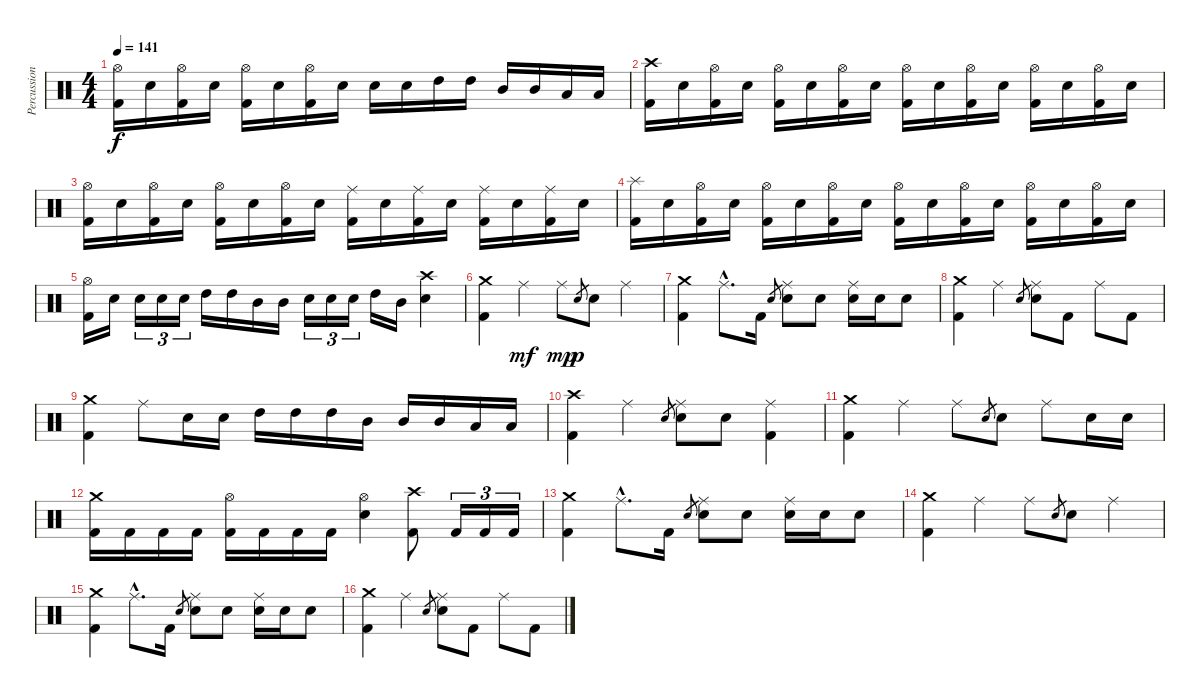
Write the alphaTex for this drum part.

\track ("Percussion" "Percussion") {instrument percussion}
\staff {score}
\articulation defaults
\ts (4 4)
\tempo 141
\clef neutral
\ks c
("Kick (hit) 2" "Hi-Hat (open)").16{dy f} "Electric Snare (hit)".16 ("Kick (hit) 2" "Hi-Hat (open)").16 "Electric Snare (hit)".16 ("Kick (hit) 2" "Hi-Hat (open)").16 "Electric Snare (hit)".16 ("Kick (hit) 2" "Hi-Hat (open)").16 "Electric Snare (hit)".16 "Electric Snare (hit)".16 "Electric Snare (hit)".16 "High Tom (hit)".16 "High Tom (hit)".16 "Mid Tom (hit)".16 "Mid Tom (hit)".16 "Low Tom (hit)".16 "Low Tom (hit)".16 |
("Kick (hit) 2" "Crash high (hit)").16 "Electric Snare (hit)".16 ("Kick (hit) 2" "Hi-Hat (open)").16 "Electric Snare (hit)".16 ("Kick (hit) 2" "Hi-Hat (open)").16 "Electric Snare (hit)".16 ("Kick (hit) 2" "Hi-Hat (open)").16 "Electric Snare (hit)".16 ("Kick (hit) 2" "Hi-Hat (open)").16 "Electric Snare (hit)".16 ("Kick (hit) 2" "Hi-Hat (open)").16 "Electric Snare (hit)".16 ("Kick (hit) 2" "Hi-Hat (open)").16 "Electric Snare (hit)".16 ("Kick (hit) 2" "Hi-Hat (open)").16 "Electric Snare (hit)".16 |
("Kick (hit) 2" "Hi-Hat (open)").16 "Electric Snare (hit)".16 ("Kick (hit) 2" "Hi-Hat (open)").16 "Electric Snare (hit)".16 ("Kick (hit) 2" "Hi-Hat (open)").16 "Electric Snare (hit)".16 ("Kick (hit) 2" "Hi-Hat (open)").16 "Electric Snare (hit)".16 ("Kick (hit) 2" "Ride (middle)").16 "Electric Snare (hit)".16 ("Kick (hit) 2" "Ride (middle)").16 "Electric Snare (hit)".16 ("Kick (hit) 2" "Ride (middle)").16 "Electric Snare (hit)".16 ("Kick (hit) 2" "Ride (middle)").16 "Electric Snare (hit)".16 |
("Kick (hit) 2" "Splash (hit)").16 "Electric Snare (hit)".16 ("Kick (hit) 2" "Hi-Hat (open)").16 "Electric Snare (hit)".16 ("Kick (hit) 2" "Hi-Hat (open)").16 "Electric Snare (hit)".16 ("Kick (hit) 2" "Hi-Hat (open)").16 "Electric Snare (hit)".16 ("Kick (hit) 2" "Hi-Hat (open)").16 "Electric Snare (hit)".16 ("Kick (hit) 2" "Hi-Hat (open)").16 "Electric Snare (hit)".16 ("Kick (hit) 2" "Hi-Hat (open)").16 "Electric Snare (hit)".16 ("Kick (hit) 2" "Hi-Hat (open)").16 "Electric Snare (hit)".16 |
("Kick (hit) 2" "Hi-Hat (open)").16 "Electric Snare (hit)".16 "Electric Snare (hit)".16{tu (3 2)} "Electric Snare (hit)".16{tu (3 2)} "Electric Snare (hit)".16{tu (3 2)} "High Tom (hit)".16 "High Tom (hit)".16 "Mid Tom (hit)".16 "Mid Tom (hit)".16 "Electric Snare (hit)".16{tu (3 2)} "Electric Snare (hit)".16{tu (3 2)} "Electric Snare (hit)".16{tu (3 2)} "High Tom (hit)".16 "Mid Tom (hit)".16 ("Electric Snare (hit)" "Crash high (hit)").4 |
("Kick (hit) 2" "Crash medium (hit)").4 "Ride (middle)".4{dy mf} "Ride (middle)".8{dy mp} "Electric Snare (hit)".8{gr dy p} "Electric Snare (hit)".8 "Ride (middle)".4 |
("Kick (hit) 2" "Crash medium (hit)").4 "Ride (middle)"{hac}.8{d} "Kick (hit) 2".16 "Electric Snare (hit)".8{gr} ("Electric Snare (hit)" "Ride (middle)").8 "Electric Snare (hit)".8 ("Electric Snare (hit)" "Ride (middle)").16 "Electric Snare (hit)".16 "Electric Snare (hit)".8 |
("Kick (hit) 2" "Crash medium (hit)").4 "Ride (middle)".4 "Electric Snare (hit)".8{gr} ("Electric Snare (hit)" "Ride (middle)").8 "Kick (hit) 2".8 "Ride (middle)".8 "Kick (hit) 2".8 |
("Kick (hit) 2" "Crash medium (hit)").4 "Ride (middle)".8 "Electric Snare (hit)".16 "Electric Snare (hit)".16 "High Tom (hit)".16 "High Tom (hit)".16 "High Tom (hit)".16 "Mid Tom (hit)".16 "Mid Tom (hit)".16 "Mid Tom (hit)".16 "Low Tom (hit)".16 "Low Tom (hit)".16 |
("Kick (hit) 2" "Crash high (hit)").4 "Ride (middle)".4 "Electric Snare (hit)".8{gr} ("Electric Snare (hit)" "Ride (middle)").8 "Electric Snare (hit)".8 ("Kick (hit) 2" "Ride (middle)").4 |
("Kick (hit) 2" "Crash medium (hit)").4 "Ride (middle)".4 "Ride (middle)".8 "Electric Snare (hit)".8{gr} "Electric Snare (hit)".8 "Ride (middle)".8 "Electric Snare (hit)".16 "Electric Snare (hit)".16 |
("Kick (hit) 2" "Crash medium (hit)").16 "Kick (hit) 2".16 "Kick (hit) 2".16 "Kick (hit) 2".16 ("Kick (hit) 2" "Hi-Hat (open)").16 "Kick (hit) 2".16 "Kick (hit) 2".16 "Kick (hit) 2".16 ("Electric Snare (hit)" "Hi-Hat (open)").4 ("Kick (hit) 2" "Crash high (hit)").8 "Kick (hit) 2".16{tu (3 2)} "Kick (hit) 2".16{tu (3 2)} "Kick (hit) 2".16{tu (3 2)} |
("Kick (hit) 2" "Crash medium (hit)").4 "Ride (middle)"{hac}.8{d} "Kick (hit) 2".16 "Electric Snare (hit)".8{gr} ("Electric Snare (hit)" "Ride (middle)").8 "Electric Snare (hit)".8 ("Electric Snare (hit)" "Ride (middle)").16 "Electric Snare (hit)".16 "Electric Snare (hit)".8 |
("Kick (hit) 2" "Crash medium (hit)").4 "Ride (middle)".4 "Ride (middle)".8 "Electric Snare (hit)".8{gr} "Electric Snare (hit)".8 "Ride (middle)".4 |
("Kick (hit) 2" "Crash medium (hit)").4 "Ride (middle)"{hac}.8{d} "Kick (hit) 2".16 "Electric Snare (hit)".8{gr} ("Electric Snare (hit)" "Ride (middle)").8 "Electric Snare (hit)".8 ("Electric Snare (hit)" "Ride (middle)").16 "Electric Snare (hit)".16 "Electric Snare (hit)".8 |
("Kick (hit) 2" "Crash medium (hit)").4 "Ride (middle)".4 "Electric Snare (hit)".8{gr} ("Electric Snare (hit)" "Ride (middle)").8 "Kick (hit) 2".8 "Ride (middle)".8 "Kick (hit) 2".8
